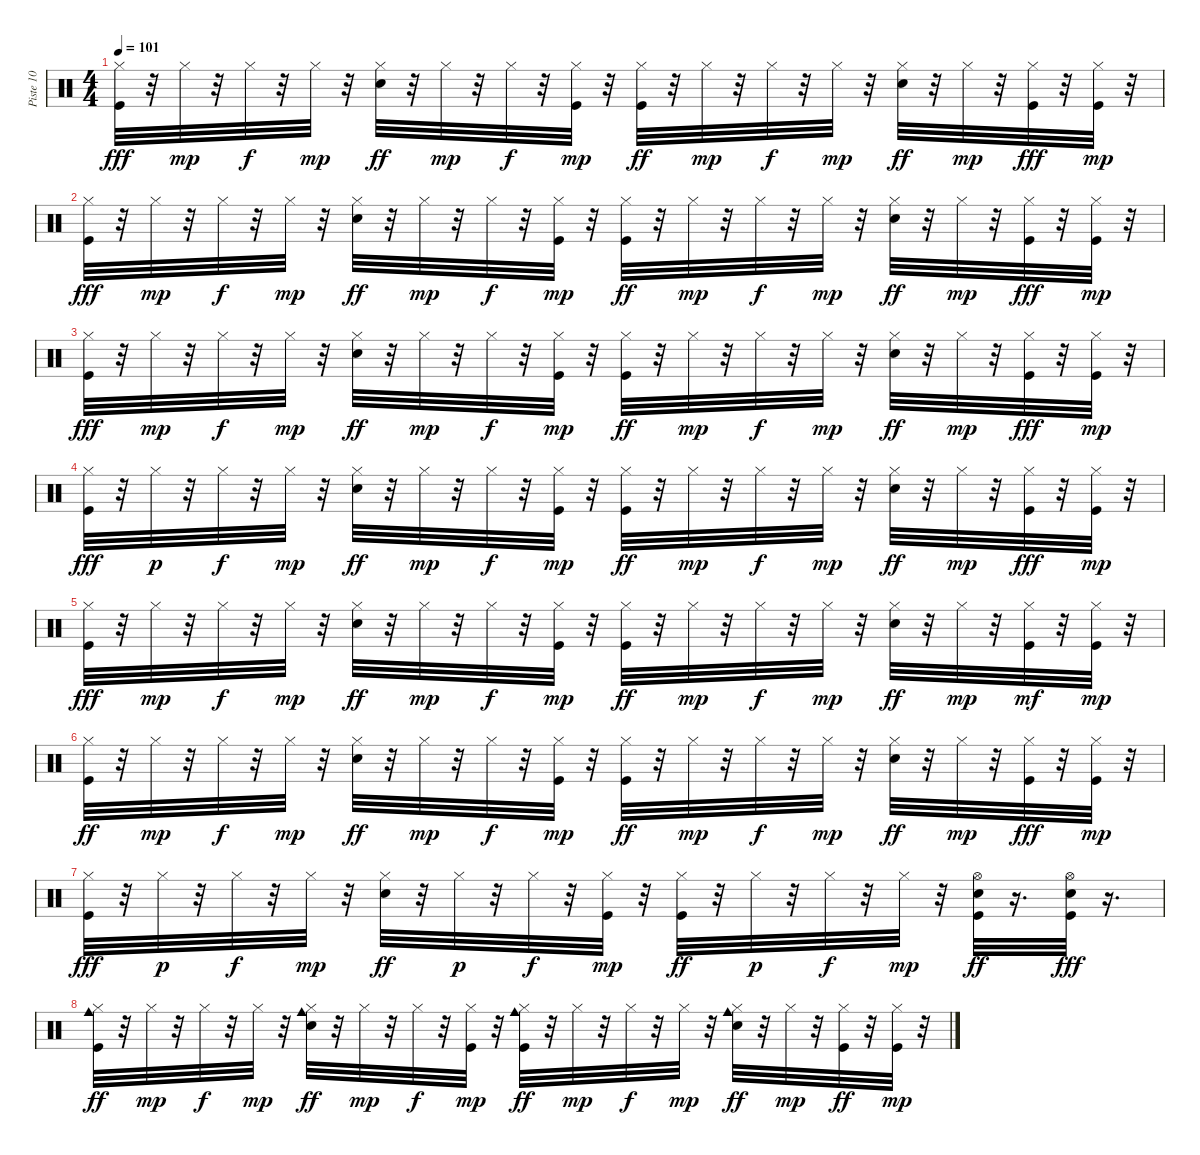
\track ("Piste 10" "Piste 10") {instrument percussion}
\staff {score}
\articulation defaults
\ts (4 4)
\tempo 101
\clef neutral
\ks c
("Kick (hit)" "Hi-Hat (closed)").32{dy fff} r.32 "Hi-Hat (closed)".32{dy mp} r.32 "Hi-Hat (closed)".32{dy f} r.32 "Hi-Hat (closed)".32{dy mp} r.32 ("Electric Snare (hit)" "Hi-Hat (closed)").32{dy ff} r.32 "Hi-Hat (closed)".32{dy mp} r.32 "Hi-Hat (closed)".32{dy f} r.32 ("Kick (hit)" "Hi-Hat (closed)").32{dy mp} r.32 ("Kick (hit)" "Hi-Hat (closed)").32{dy ff} r.32 "Hi-Hat (closed)".32{dy mp} r.32 "Hi-Hat (closed)".32{dy f} r.32 "Hi-Hat (closed)".32{dy mp} r.32 ("Electric Snare (hit)" "Hi-Hat (closed)").32{dy ff} r.32 "Hi-Hat (closed)".32{dy mp} r.32 ("Kick (hit)" "Hi-Hat (closed)").32{dy fff} r.32 ("Kick (hit)" "Hi-Hat (closed)").32{dy mp} r.32 |
("Kick (hit)" "Hi-Hat (closed)").32{dy fff} r.32 "Hi-Hat (closed)".32{dy mp} r.32 "Hi-Hat (closed)".32{dy f} r.32 "Hi-Hat (closed)".32{dy mp} r.32 ("Electric Snare (hit)" "Hi-Hat (closed)").32{dy ff} r.32 "Hi-Hat (closed)".32{dy mp} r.32 "Hi-Hat (closed)".32{dy f} r.32 ("Kick (hit)" "Hi-Hat (closed)").32{dy mp} r.32 ("Kick (hit)" "Hi-Hat (closed)").32{dy ff} r.32 "Hi-Hat (closed)".32{dy mp} r.32 "Hi-Hat (closed)".32{dy f} r.32 "Hi-Hat (closed)".32{dy mp} r.32 ("Electric Snare (hit)" "Hi-Hat (closed)").32{dy ff} r.32 "Hi-Hat (closed)".32{dy mp} r.32 ("Kick (hit)" "Hi-Hat (closed)").32{dy fff} r.32 ("Kick (hit)" "Hi-Hat (closed)").32{dy mp} r.32 |
("Kick (hit)" "Hi-Hat (closed)").32{dy fff} r.32 "Hi-Hat (closed)".32{dy mp} r.32 "Hi-Hat (closed)".32{dy f} r.32 "Hi-Hat (closed)".32{dy mp} r.32 ("Electric Snare (hit)" "Hi-Hat (closed)").32{dy ff} r.32 "Hi-Hat (closed)".32{dy mp} r.32 "Hi-Hat (closed)".32{dy f} r.32 ("Kick (hit)" "Hi-Hat (closed)").32{dy mp} r.32 ("Kick (hit)" "Hi-Hat (closed)").32{dy ff} r.32 "Hi-Hat (closed)".32{dy mp} r.32 "Hi-Hat (closed)".32{dy f} r.32 "Hi-Hat (closed)".32{dy mp} r.32 ("Electric Snare (hit)" "Hi-Hat (closed)").32{dy ff} r.32 "Hi-Hat (closed)".32{dy mp} r.32 ("Kick (hit)" "Hi-Hat (closed)").32{dy fff} r.32 ("Kick (hit)" "Hi-Hat (closed)").32{dy mp} r.32 |
("Kick (hit)" "Hi-Hat (closed)").32{dy fff} r.32 "Hi-Hat (closed)".32{dy p} r.32 "Hi-Hat (closed)".32{dy f} r.32 "Hi-Hat (closed)".32{dy mp} r.32 ("Electric Snare (hit)" "Hi-Hat (closed)").32{dy ff} r.32 "Hi-Hat (closed)".32{dy mp} r.32 "Hi-Hat (closed)".32{dy f} r.32 ("Kick (hit)" "Hi-Hat (closed)").32{dy mp} r.32 ("Kick (hit)" "Hi-Hat (closed)").32{dy ff} r.32 "Hi-Hat (closed)".32{dy mp} r.32 "Hi-Hat (closed)".32{dy f} r.32 "Hi-Hat (closed)".32{dy mp} r.32 ("Electric Snare (hit)" "Hi-Hat (closed)").32{dy ff} r.32 "Hi-Hat (closed)".32{dy mp} r.32 ("Kick (hit)" "Hi-Hat (closed)").32{dy fff} r.32 ("Kick (hit)" "Hi-Hat (closed)").32{dy mp} r.32 |
("Kick (hit)" "Hi-Hat (closed)").32{dy fff} r.32 "Hi-Hat (closed)".32{dy mp} r.32 "Hi-Hat (closed)".32{dy f} r.32 "Hi-Hat (closed)".32{dy mp} r.32 ("Electric Snare (hit)" "Hi-Hat (closed)").32{dy ff} r.32 "Hi-Hat (closed)".32{dy mp} r.32 "Hi-Hat (closed)".32{dy f} r.32 ("Kick (hit)" "Hi-Hat (closed)").32{dy mp} r.32 ("Kick (hit)" "Hi-Hat (closed)").32{dy ff} r.32 "Hi-Hat (closed)".32{dy mp} r.32 "Hi-Hat (closed)".32{dy f} r.32 "Hi-Hat (closed)".32{dy mp} r.32 ("Electric Snare (hit)" "Hi-Hat (closed)").32{dy ff} r.32 "Hi-Hat (closed)".32{dy mp} r.32 ("Kick (hit)" "Hi-Hat (closed)").32{dy mf} r.32 ("Kick (hit)" "Hi-Hat (closed)").32{dy mp} r.32 |
("Kick (hit)" "Hi-Hat (closed)").32{dy ff} r.32 "Hi-Hat (closed)".32{dy mp} r.32 "Hi-Hat (closed)".32{dy f} r.32 "Hi-Hat (closed)".32{dy mp} r.32 ("Electric Snare (hit)" "Hi-Hat (closed)").32{dy ff} r.32 "Hi-Hat (closed)".32{dy mp} r.32 "Hi-Hat (closed)".32{dy f} r.32 ("Kick (hit)" "Hi-Hat (closed)").32{dy mp} r.32 ("Kick (hit)" "Hi-Hat (closed)").32{dy ff} r.32 "Hi-Hat (closed)".32{dy mp} r.32 "Hi-Hat (closed)".32{dy f} r.32 "Hi-Hat (closed)".32{dy mp} r.32 ("Electric Snare (hit)" "Hi-Hat (closed)").32{dy ff} r.32 "Hi-Hat (closed)".32{dy mp} r.32 ("Kick (hit)" "Hi-Hat (closed)").32{dy fff} r.32 ("Kick (hit)" "Hi-Hat (closed)").32{dy mp} r.32 |
("Kick (hit)" "Hi-Hat (closed)").32{dy fff} r.32 "Hi-Hat (closed)".32{dy p} r.32 "Hi-Hat (closed)".32{dy f} r.32 "Hi-Hat (closed)".32{dy mp} r.32 ("Electric Snare (hit)" "Hi-Hat (closed)").32{dy ff} r.32 "Hi-Hat (closed)".32{dy p} r.32 "Hi-Hat (closed)".32{dy f} r.32 ("Kick (hit)" "Hi-Hat (closed)").32{dy mp} r.32 ("Kick (hit)" "Hi-Hat (closed)").32{dy ff} r.32 "Hi-Hat (closed)".32{dy p} r.32 "Hi-Hat (closed)".32{dy f} r.32 "Hi-Hat (closed)".32{dy mp} r.32 ("Kick (hit)" "Electric Snare (hit)" "Hi-Hat (open)").32{dy ff} r.16{d} ("Kick (hit)" "Electric Snare (hit)" "Hi-Hat (open)").32{dy fff} r.16{d} |
("Kick (hit)" "Hi-Hat (closed)" "Cowbell medium (hit)").32{dy ff} r.32 "Hi-Hat (closed)".32{dy mp} r.32 "Hi-Hat (closed)".32{dy f} r.32 "Hi-Hat (closed)".32{dy mp} r.32 ("Electric Snare (hit)" "Hi-Hat (closed)" "Cowbell medium (hit)").32{dy ff} r.32 "Hi-Hat (closed)".32{dy mp} r.32 "Hi-Hat (closed)".32{dy f} r.32 ("Kick (hit)" "Hi-Hat (closed)").32{dy mp} r.32 ("Kick (hit)" "Hi-Hat (closed)" "Cowbell medium (hit)").32{dy ff} r.32 "Hi-Hat (closed)".32{dy mp} r.32 "Hi-Hat (closed)".32{dy f} r.32 "Hi-Hat (closed)".32{dy mp} r.32 ("Electric Snare (hit)" "Hi-Hat (closed)" "Cowbell medium (hit)").32{dy ff} r.32 "Hi-Hat (closed)".32{dy mp} r.32 ("Kick (hit)" "Hi-Hat (closed)").32{dy ff} r.32 ("Kick (hit)" "Hi-Hat (closed)").32{dy mp} r.32
